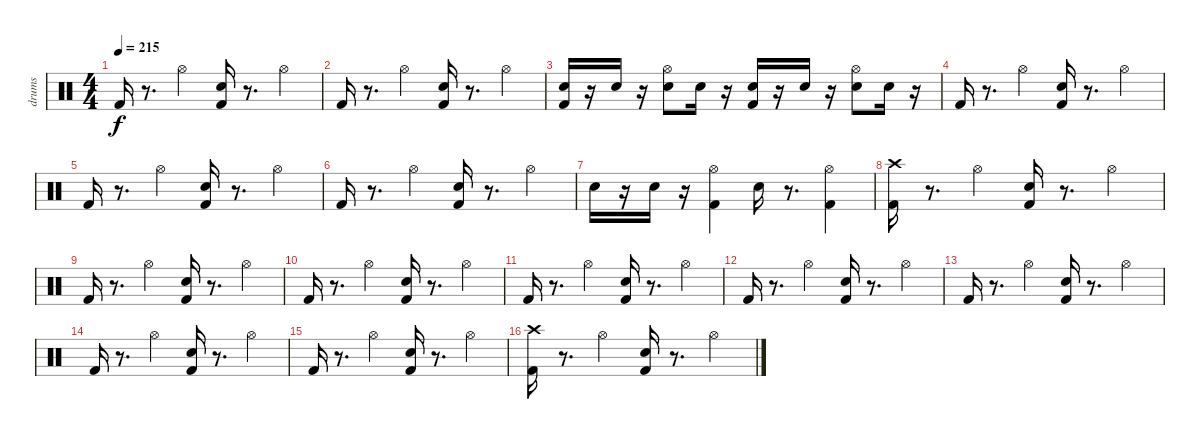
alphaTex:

\track ("drums" "drums") {instrument percussion}
\staff {score}
\articulation defaults
\ts (4 4)
\tempo 215
\clef neutral
\ks c "Kick (hit) 2".16{dy f}
r.8{d} "Hi-Hat (open)".4 ("Electric Snare (hit)" "Kick (hit) 2").16 r.8{d} "Hi-Hat (open)".4 |
"Kick (hit) 2".16 r.8{d} "Hi-Hat (open)".4 ("Electric Snare (hit)" "Kick (hit) 2").16 r.8{d} "Hi-Hat (open)".4 |
("Electric Snare (hit)" "Kick (hit) 2").16 r.16 "Electric Snare (hit)".16 r.16 ("Electric Snare (hit)" "Hi-Hat (open)").8 "Electric Snare (hit)".16 r.16 ("Electric Snare (hit)" "Kick (hit) 2").16 r.16 "Electric Snare (hit)".16 r.16 ("Electric Snare (hit)" "Hi-Hat (open)").8 "Electric Snare (hit)".16 r.16 |
"Kick (hit) 2".16 r.8{d} "Hi-Hat (open)".4 ("Electric Snare (hit)" "Kick (hit) 2").16 r.8{d} "Hi-Hat (open)".4 |
"Kick (hit) 2".16 r.8{d} "Hi-Hat (open)".4 ("Electric Snare (hit)" "Kick (hit) 2").16 r.8{d} "Hi-Hat (open)".4 |
"Kick (hit) 2".16 r.8{d} "Hi-Hat (open)".4 ("Electric Snare (hit)" "Kick (hit) 2").16 r.8{d} "Hi-Hat (open)".4 |
"Electric Snare (hit)".16 r.16 "Electric Snare (hit)".16 r.16 ("Hi-Hat (open)" "Kick (hit) 2").4 "Electric Snare (hit)".16 r.8{d} ("Hi-Hat (open)" "Kick (hit) 2").4 |
("Crash high (hit)" "Kick (hit) 2").16 r.8{d} "Hi-Hat (open)".4 ("Electric Snare (hit)" "Kick (hit) 2").16 r.8{d} "Hi-Hat (open)".4 |
"Kick (hit) 2".16 r.8{d} "Hi-Hat (open)".4 ("Electric Snare (hit)" "Kick (hit) 2").16 r.8{d} "Hi-Hat (open)".4 |
"Kick (hit) 2".16 r.8{d} "Hi-Hat (open)".4 ("Electric Snare (hit)" "Kick (hit) 2").16 r.8{d} "Hi-Hat (open)".4 |
"Kick (hit) 2".16 r.8{d} "Hi-Hat (open)".4 ("Electric Snare (hit)" "Kick (hit) 2").16 r.8{d} "Hi-Hat (open)".4 |
"Kick (hit) 2".16 r.8{d} "Hi-Hat (open)".4 ("Electric Snare (hit)" "Kick (hit) 2").16 r.8{d} "Hi-Hat (open)".4 |
"Kick (hit) 2".16 r.8{d} "Hi-Hat (open)".4 ("Electric Snare (hit)" "Kick (hit) 2").16 r.8{d} "Hi-Hat (open)".4 |
"Kick (hit) 2".16 r.8{d} "Hi-Hat (open)".4 ("Electric Snare (hit)" "Kick (hit) 2").16 r.8{d} "Hi-Hat (open)".4 |
"Kick (hit) 2".16 r.8{d} "Hi-Hat (open)".4 ("Electric Snare (hit)" "Kick (hit) 2").16 r.8{d} "Hi-Hat (open)".4 |
("Crash high (hit)" "Kick (hit) 2").16 r.8{d} "Hi-Hat (open)".4 ("Electric Snare (hit)" "Kick (hit) 2").16 r.8{d} "Hi-Hat (open)".4
